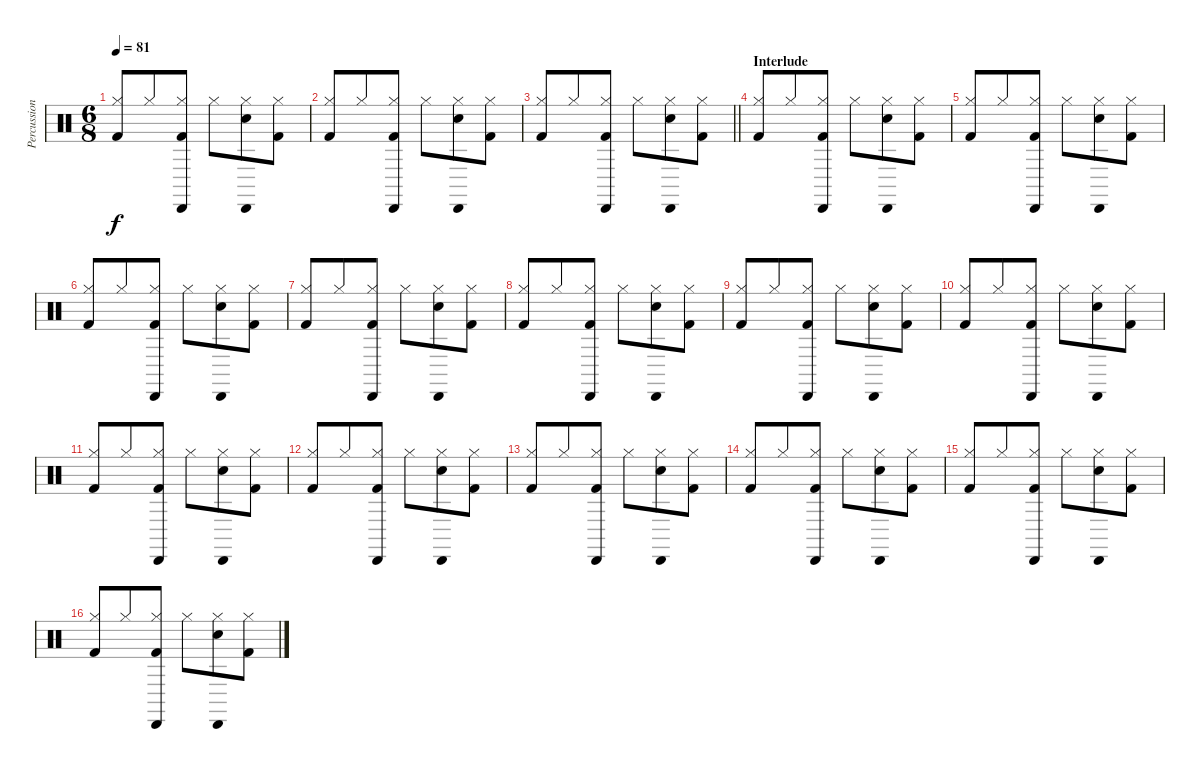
\track ("Percussion" "Percussion") {instrument percussion}
\staff {score}
\articulation defaults
\ts (6 8)
\tempo 81
\clef neutral
\ks c
("Hi-Hat (closed)" "Kick (hit) 2").8{dy f} "Hi-Hat (closed)".8 ("Hi-Hat (closed)" "Kick (hit) 2" "Cabasa (hit)").8 "Hi-Hat (closed)".8 ("Hi-Hat (closed)" "Snare (hit) 2" "Cabasa (hit)").8 ("Hi-Hat (closed)" "Kick (hit) 2").8 |
("Hi-Hat (closed)" "Kick (hit) 2").8 "Hi-Hat (closed)".8 ("Hi-Hat (closed)" "Kick (hit) 2" "Cabasa (hit)").8 "Hi-Hat (closed)".8 ("Hi-Hat (closed)" "Snare (hit) 2" "Cabasa (hit)").8 ("Hi-Hat (closed)" "Kick (hit) 2").8 |
\barLineRight lightlight
("Hi-Hat (closed)" "Kick (hit) 2").8 "Hi-Hat (closed)".8 ("Hi-Hat (closed)" "Kick (hit) 2" "Cabasa (hit)").8 "Hi-Hat (closed)".8 ("Hi-Hat (closed)" "Snare (hit) 2" "Cabasa (hit)").8 ("Hi-Hat (closed)" "Kick (hit) 2").8 |
\section ("" "Interlude")
("Hi-Hat (closed)" "Kick (hit) 2").8 "Hi-Hat (closed)".8 ("Hi-Hat (closed)" "Kick (hit) 2" "Cabasa (hit)").8 "Hi-Hat (closed)".8 ("Hi-Hat (closed)" "Snare (hit) 2" "Cabasa (hit)").8 ("Hi-Hat (closed)" "Kick (hit) 2").8 |
("Hi-Hat (closed)" "Kick (hit) 2").8 "Hi-Hat (closed)".8 ("Hi-Hat (closed)" "Kick (hit) 2" "Cabasa (hit)").8 "Hi-Hat (closed)".8 ("Hi-Hat (closed)" "Snare (hit) 2" "Cabasa (hit)").8 ("Hi-Hat (closed)" "Kick (hit) 2").8 |
("Hi-Hat (closed)" "Kick (hit) 2").8 "Hi-Hat (closed)".8 ("Hi-Hat (closed)" "Kick (hit) 2" "Cabasa (hit)").8 "Hi-Hat (closed)".8 ("Hi-Hat (closed)" "Snare (hit) 2" "Cabasa (hit)").8 ("Hi-Hat (closed)" "Kick (hit) 2").8 |
("Hi-Hat (closed)" "Kick (hit) 2").8 "Hi-Hat (closed)".8 ("Hi-Hat (closed)" "Kick (hit) 2" "Cabasa (hit)").8 "Hi-Hat (closed)".8 ("Hi-Hat (closed)" "Snare (hit) 2" "Cabasa (hit)").8 ("Hi-Hat (closed)" "Kick (hit) 2").8 |
("Hi-Hat (closed)" "Kick (hit) 2").8 "Hi-Hat (closed)".8 ("Hi-Hat (closed)" "Kick (hit) 2" "Cabasa (hit)").8 "Hi-Hat (closed)".8 ("Hi-Hat (closed)" "Snare (hit) 2" "Cabasa (hit)").8 ("Hi-Hat (closed)" "Kick (hit) 2").8 |
("Hi-Hat (closed)" "Kick (hit) 2").8 "Hi-Hat (closed)".8 ("Hi-Hat (closed)" "Kick (hit) 2" "Cabasa (hit)").8 "Hi-Hat (closed)".8 ("Hi-Hat (closed)" "Snare (hit) 2" "Cabasa (hit)").8 ("Hi-Hat (closed)" "Kick (hit) 2").8 |
("Hi-Hat (closed)" "Kick (hit) 2").8 "Hi-Hat (closed)".8 ("Hi-Hat (closed)" "Kick (hit) 2" "Cabasa (hit)").8 "Hi-Hat (closed)".8 ("Hi-Hat (closed)" "Snare (hit) 2" "Cabasa (hit)").8 ("Hi-Hat (closed)" "Kick (hit) 2").8 |
("Hi-Hat (closed)" "Kick (hit) 2").8 "Hi-Hat (closed)".8 ("Hi-Hat (closed)" "Kick (hit) 2" "Cabasa (hit)").8 "Hi-Hat (closed)".8 ("Hi-Hat (closed)" "Snare (hit) 2" "Cabasa (hit)").8 ("Hi-Hat (closed)" "Kick (hit) 2").8 |
("Hi-Hat (closed)" "Kick (hit) 2").8 "Hi-Hat (closed)".8 ("Hi-Hat (closed)" "Kick (hit) 2" "Cabasa (hit)").8 "Hi-Hat (closed)".8 ("Hi-Hat (closed)" "Snare (hit) 2" "Cabasa (hit)").8 ("Hi-Hat (closed)" "Kick (hit) 2").8 |
("Hi-Hat (closed)" "Kick (hit) 2").8 "Hi-Hat (closed)".8 ("Hi-Hat (closed)" "Kick (hit) 2" "Cabasa (hit)").8 "Hi-Hat (closed)".8 ("Hi-Hat (closed)" "Snare (hit) 2" "Cabasa (hit)").8 ("Hi-Hat (closed)" "Kick (hit) 2").8 |
("Hi-Hat (closed)" "Kick (hit) 2").8 "Hi-Hat (closed)".8 ("Hi-Hat (closed)" "Kick (hit) 2" "Cabasa (hit)").8 "Hi-Hat (closed)".8 ("Hi-Hat (closed)" "Snare (hit) 2" "Cabasa (hit)").8 ("Hi-Hat (closed)" "Kick (hit) 2").8 |
("Hi-Hat (closed)" "Kick (hit) 2").8 "Hi-Hat (closed)".8 ("Hi-Hat (closed)" "Kick (hit) 2" "Cabasa (hit)").8 "Hi-Hat (closed)".8 ("Hi-Hat (closed)" "Snare (hit) 2" "Cabasa (hit)").8 ("Hi-Hat (closed)" "Kick (hit) 2").8 |
("Hi-Hat (closed)" "Kick (hit) 2").8 "Hi-Hat (closed)".8 ("Hi-Hat (closed)" "Kick (hit) 2" "Cabasa (hit)").8 "Hi-Hat (closed)".8 ("Hi-Hat (closed)" "Snare (hit) 2" "Cabasa (hit)").8 ("Hi-Hat (closed)" "Kick (hit) 2").8
